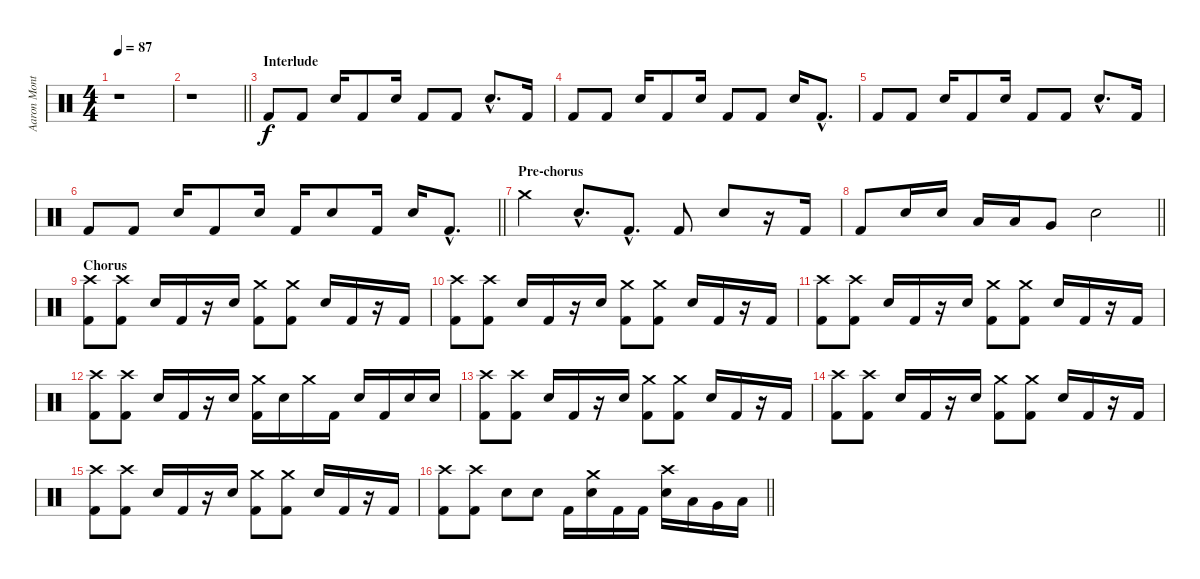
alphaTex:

\track ("Aaron Montgomery (Drums)" "Aaron Mont") {instrument percussion}
\staff {score}
\articulation defaults
\ts (4 4)
\tempo 87
\clef neutral
\ks c
r.1{dy f} |
\barLineRight lightlight
r.1 |
\section ("" "Interlude")
"Kick (hit) 2".8 "Kick (hit) 2".8 "Electric Snare (hit)".16 "Kick (hit) 2".8 "Electric Snare (hit)".16 "Kick (hit) 2".8 "Kick (hit) 2".8 "Electric Snare (hit)"{hac}.8{d} "Kick (hit) 2".16 |
"Kick (hit) 2".8 "Kick (hit) 2".8 "Electric Snare (hit)".16 "Kick (hit) 2".8 "Electric Snare (hit)".16 "Kick (hit) 2".8 "Kick (hit) 2".8 "Electric Snare (hit)".16 "Kick (hit) 2"{hac}.8{d} |
"Kick (hit) 2".8 "Kick (hit) 2".8 "Electric Snare (hit)".16 "Kick (hit) 2".8 "Electric Snare (hit)".16 "Kick (hit) 2".8 "Kick (hit) 2".8 "Electric Snare (hit)"{hac}.8{d} "Kick (hit) 2".16 |
\barLineRight lightlight "Kick (hit) 2".8 "Kick (hit) 2".8 "Electric Snare (hit)".16 "Kick (hit) 2".8 "Electric Snare (hit)".16 "Kick (hit) 2".16 "Electric Snare (hit)".8 "Kick (hit) 2".16 "Electric Snare (hit)".16 "Kick (hit) 2"{hac}.8{d}
|
\section ("" "Pre-chorus")
"Crash medium (hit)".4 "Electric Snare (hit)"{hac}.8{d} "Kick (hit) 2"{hac}.8{d} "Kick (hit) 2".8 "Electric Snare (hit)".8 r.16 "Kick (hit) 2".16 |
\barLineRight lightlight "Kick (hit) 2".8 "Electric Snare (hit)".16 "Electric Snare (hit)".16 "Low Tom (hit)".16 "Low Tom (hit)".16 "Very Low Tom (hit)".8 "Electric Snare (hit)".2
|
\section ("" "Chorus")
("Crash high (hit)" "Kick (hit) 2").8 ("Crash high (hit)" "Kick (hit) 2").8 "Electric Snare (hit)".16 "Kick (hit) 2".16 r.16 "Electric Snare (hit)".16 ("Crash medium (hit)" "Kick (hit) 2").8 ("Crash medium (hit)" "Kick (hit) 2").8 "Electric Snare (hit)".16 "Kick (hit) 2".16 r.16 "Kick (hit) 2".16 |
("Crash high (hit)" "Kick (hit) 2").8 ("Crash high (hit)" "Kick (hit) 2").8 "Electric Snare (hit)".16 "Kick (hit) 2".16 r.16 "Electric Snare (hit)".16 ("Crash medium (hit)" "Kick (hit) 2").8 ("Crash medium (hit)" "Kick (hit) 2").8 "Electric Snare (hit)".16 "Kick (hit) 2".16 r.16 "Kick (hit) 2".16 |
("Crash high (hit)" "Kick (hit) 2").8 ("Crash high (hit)" "Kick (hit) 2").8 "Electric Snare (hit)".16 "Kick (hit) 2".16 r.16 "Electric Snare (hit)".16 ("Crash medium (hit)" "Kick (hit) 2").8 ("Crash medium (hit)" "Kick (hit) 2").8 "Electric Snare (hit)".16 "Kick (hit) 2".16 r.16 "Kick (hit) 2".16 |
("Crash high (hit)" "Kick (hit) 2").8 ("Crash high (hit)" "Kick (hit) 2").8 "Electric Snare (hit)".16 "Kick (hit) 2".16 r.16 "Electric Snare (hit)".16 ("Crash medium (hit)" "Kick (hit) 2").16 "Electric Snare (hit)".16 "Crash medium (hit)".16 "Kick (hit) 2".16 "Electric Snare (hit)".16 "Kick (hit) 2".16 "Electric Snare (hit)".16 "Electric Snare (hit)".16 |
("Crash high (hit)" "Kick (hit) 2").8 ("Crash high (hit)" "Kick (hit) 2").8 "Electric Snare (hit)".16 "Kick (hit) 2".16 r.16 "Electric Snare (hit)".16 ("Crash medium (hit)" "Kick (hit) 2").8 ("Crash medium (hit)" "Kick (hit) 2").8 "Electric Snare (hit)".16 "Kick (hit) 2".16 r.16 "Kick (hit) 2".16 |
("Crash high (hit)" "Kick (hit) 2").8 ("Crash high (hit)" "Kick (hit) 2").8 "Electric Snare (hit)".16 "Kick (hit) 2".16 r.16 "Electric Snare (hit)".16 ("Crash medium (hit)" "Kick (hit) 2").8 ("Crash medium (hit)" "Kick (hit) 2").8 "Electric Snare (hit)".16 "Kick (hit) 2".16 r.16 "Kick (hit) 2".16 |
("Crash high (hit)" "Kick (hit) 2").8 ("Crash high (hit)" "Kick (hit) 2").8 "Electric Snare (hit)".16 "Kick (hit) 2".16 r.16 "Electric Snare (hit)".16 ("Crash medium (hit)" "Kick (hit) 2").8 ("Crash medium (hit)" "Kick (hit) 2").8 "Electric Snare (hit)".16 "Kick (hit) 2".16 r.16 "Kick (hit) 2".16 |
\barLineRight lightlight
("Crash high (hit)" "Kick (hit) 2").8 ("Crash high (hit)" "Kick (hit) 2").8 "Electric Snare (hit)".8 "Electric Snare (hit)".8 "Kick (hit) 2".16 ("Crash medium (hit)" "Electric Snare (hit)").16 "Kick (hit) 2".16 "Kick (hit) 2".16 ("Crash high (hit)" "Electric Snare (hit)").16 "Low Tom (hit)".16 "Very Low Tom (hit)".16 "Low Floor Tom (hit)".16
